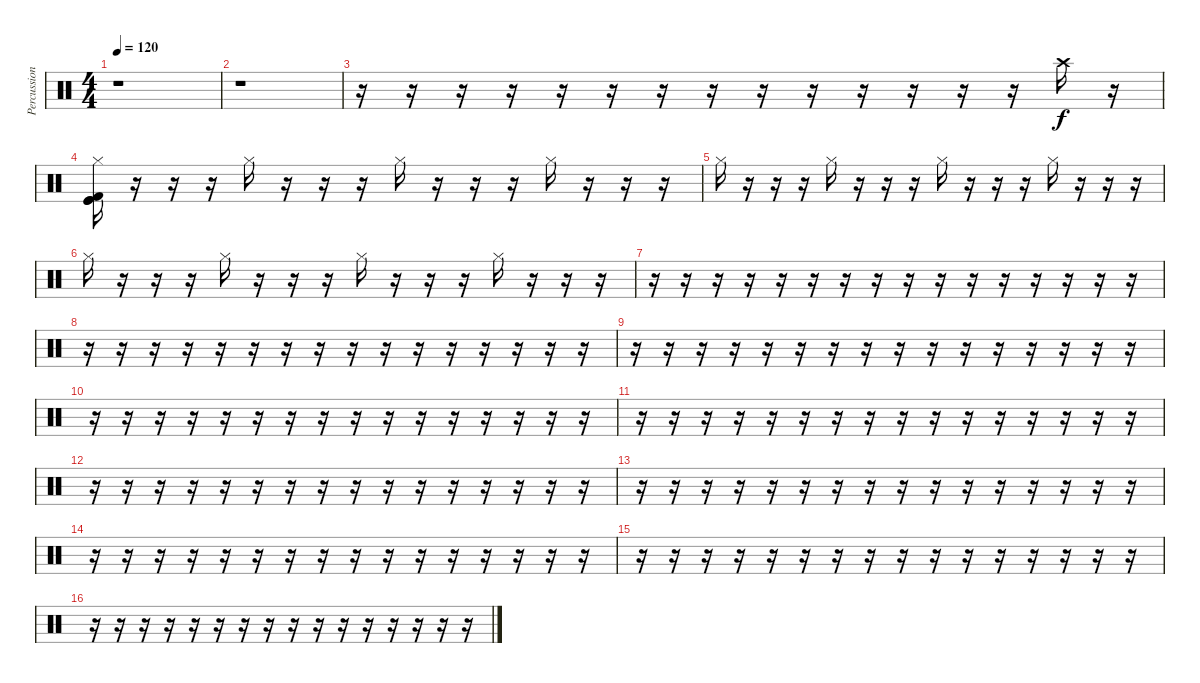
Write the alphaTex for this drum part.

\track ("Percussions" "Percussion") {instrument percussion}
\staff {score}
\articulation defaults
\ts (4 4)
\tempo 120
\clef neutral
\ks c
r.1{dy f} |
r.1 |
r.16 r.16 r.16 r.16 r.16 r.16 r.16 r.16 r.16 r.16 r.16 r.16 r.16 r.16 "Crash high (hit)".16 r.16 |
("Hi-Hat (closed)" "Kick (hit) 2" "Kick (hit)" "Kick (hit)").16 r.16 r.16 r.16 "Hi-Hat (closed)".16 r.16 r.16 r.16 "Hi-Hat (closed)".16 r.16 r.16 r.16 "Hi-Hat (closed)".16 r.16 r.16 r.16 |
"Hi-Hat (closed)".16 r.16 r.16 r.16 "Hi-Hat (closed)".16 r.16 r.16 r.16 "Hi-Hat (closed)".16 r.16 r.16 r.16 "Hi-Hat (closed)".16 r.16 r.16 r.16 |
"Hi-Hat (closed)".16 r.16 r.16 r.16 "Hi-Hat (closed)".16 r.16 r.16 r.16 "Hi-Hat (closed)".16 r.16 r.16 r.16 "Hi-Hat (closed)".16 r.16 r.16 r.16 |
r.16 r.16 r.16 r.16 r.16 r.16 r.16 r.16 r.16 r.16 r.16 r.16 r.16 r.16 r.16 r.16 |
r.16 r.16 r.16 r.16 r.16 r.16 r.16 r.16 r.16 r.16 r.16 r.16 r.16 r.16 r.16 r.16 |
r.16 r.16 r.16 r.16 r.16 r.16 r.16 r.16 r.16 r.16 r.16 r.16 r.16 r.16 r.16 r.16 |
r.16 r.16 r.16 r.16 r.16 r.16 r.16 r.16 r.16 r.16 r.16 r.16 r.16 r.16 r.16 r.16 |
r.16 r.16 r.16 r.16 r.16 r.16 r.16 r.16 r.16 r.16 r.16 r.16 r.16 r.16 r.16 r.16 |
r.16 r.16 r.16 r.16 r.16 r.16 r.16 r.16 r.16 r.16 r.16 r.16 r.16 r.16 r.16 r.16 |
r.16 r.16 r.16 r.16 r.16 r.16 r.16 r.16 r.16 r.16 r.16 r.16 r.16 r.16 r.16 r.16 |
r.16 r.16 r.16 r.16 r.16 r.16 r.16 r.16 r.16 r.16 r.16 r.16 r.16 r.16 r.16 r.16 |
r.16 r.16 r.16 r.16 r.16 r.16 r.16 r.16 r.16 r.16 r.16 r.16 r.16 r.16 r.16 r.16 |
r.16 r.16 r.16 r.16 r.16 r.16 r.16 r.16 r.16 r.16 r.16 r.16 r.16 r.16 r.16 r.16
